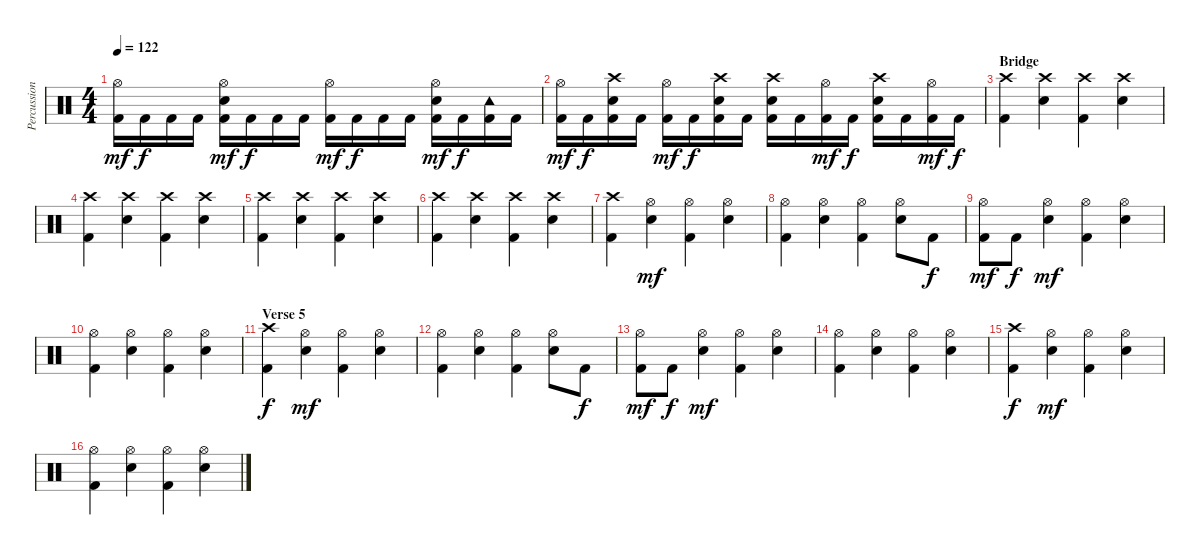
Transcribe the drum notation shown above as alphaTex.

\track ("Percussion" "Percussion") {instrument percussion}
\staff {score}
\articulation defaults
\ts (4 4)
\tempo 122
\clef neutral
\ks c
("Hi-Hat (open)" "Kick (hit) 2").16{dy mf} "Kick (hit) 2".16{dy f} "Kick (hit) 2".16 "Kick (hit) 2".16 ("Hi-Hat (open)" "Electric Snare (hit)" "Kick (hit) 2").16{dy mf} "Kick (hit) 2".16{dy f} "Kick (hit) 2".16 "Kick (hit) 2".16 ("Hi-Hat (open)" "Kick (hit) 2").16{dy mf} "Kick (hit) 2".16{dy f} "Kick (hit) 2".16 "Kick (hit) 2".16 ("Hi-Hat (open)" "Electric Snare (hit)" "Kick (hit) 2").16{dy mf} "Kick (hit) 2".16{dy f} ("Tambourine (hit)" "Kick (hit) 2").16 "Kick (hit) 2".16 |
("Hi-Hat (open)" "Kick (hit) 2").16{dy mf} "Kick (hit) 2".16{dy f} ("Crash high (hit)" "Electric Snare (hit)" "Kick (hit) 2").16 "Kick (hit) 2".16 ("Hi-Hat (open)" "Kick (hit) 2").16{dy mf} "Kick (hit) 2".16{dy f} ("Crash high (hit)" "Electric Snare (hit)" "Kick (hit) 2").16 "Kick (hit) 2".16 ("Crash high (hit)" "Electric Snare (hit)" "Kick (hit) 2").16 "Kick (hit) 2".16 ("Hi-Hat (open)" "Kick (hit) 2").16{dy mf} "Kick (hit) 2".16{dy f} ("Crash high (hit)" "Electric Snare (hit)" "Kick (hit) 2").16 "Kick (hit) 2".16 ("Hi-Hat (open)" "Kick (hit) 2").16{dy mf} "Kick (hit) 2".16{dy f} |
\section ("" "Bridge")
("Crash high (hit)" "Kick (hit) 2").4 ("Crash high (hit)" "Electric Snare (hit)").4 ("Crash high (hit)" "Kick (hit) 2").4 ("Crash high (hit)" "Electric Snare (hit)").4 |
("Crash high (hit)" "Kick (hit) 2").4 ("Crash high (hit)" "Electric Snare (hit)").4 ("Crash high (hit)" "Kick (hit) 2").4 ("Crash high (hit)" "Electric Snare (hit)").4 |
("Crash high (hit)" "Kick (hit) 2").4 ("Crash high (hit)" "Electric Snare (hit)").4 ("Crash high (hit)" "Kick (hit) 2").4 ("Crash high (hit)" "Electric Snare (hit)").4 |
("Crash high (hit)" "Kick (hit) 2").4 ("Crash high (hit)" "Electric Snare (hit)").4 ("Crash high (hit)" "Kick (hit) 2").4 ("Crash high (hit)" "Electric Snare (hit)").4 |
("Crash high (hit)" "Kick (hit) 2").4 ("Hi-Hat (open)" "Electric Snare (hit)").4{dy mf} ("Hi-Hat (open)" "Kick (hit) 2").4 ("Hi-Hat (open)" "Electric Snare (hit)").4 |
("Hi-Hat (open)" "Kick (hit) 2").4 ("Hi-Hat (open)" "Electric Snare (hit)").4 ("Hi-Hat (open)" "Kick (hit) 2").4 ("Hi-Hat (open)" "Electric Snare (hit)").8 "Kick (hit) 2".8{dy f} |
("Hi-Hat (open)" "Kick (hit) 2").8{dy mf} "Kick (hit) 2".8{dy f} ("Hi-Hat (open)" "Electric Snare (hit)").4{dy mf} ("Hi-Hat (open)" "Kick (hit) 2").4 ("Hi-Hat (open)" "Electric Snare (hit)").4 |
("Hi-Hat (open)" "Kick (hit) 2").4 ("Hi-Hat (open)" "Electric Snare (hit)").4 ("Hi-Hat (open)" "Kick (hit) 2").4 ("Hi-Hat (open)" "Electric Snare (hit)").4 |
\section ("" "Verse 5")
("Crash high (hit)" "Kick (hit) 2").4{dy f} ("Hi-Hat (open)" "Electric Snare (hit)").4{dy mf} ("Hi-Hat (open)" "Kick (hit) 2").4 ("Hi-Hat (open)" "Electric Snare (hit)").4 |
("Hi-Hat (open)" "Kick (hit) 2").4 ("Hi-Hat (open)" "Electric Snare (hit)").4 ("Hi-Hat (open)" "Kick (hit) 2").4 ("Hi-Hat (open)" "Electric Snare (hit)").8 "Kick (hit) 2".8{dy f} |
("Hi-Hat (open)" "Kick (hit) 2").8{dy mf} "Kick (hit) 2".8{dy f} ("Hi-Hat (open)" "Electric Snare (hit)").4{dy mf} ("Hi-Hat (open)" "Kick (hit) 2").4 ("Hi-Hat (open)" "Electric Snare (hit)").4 |
("Hi-Hat (open)" "Kick (hit) 2").4 ("Hi-Hat (open)" "Electric Snare (hit)").4 ("Hi-Hat (open)" "Kick (hit) 2").4 ("Hi-Hat (open)" "Electric Snare (hit)").4 |
("Crash high (hit)" "Kick (hit) 2").4{dy f} ("Hi-Hat (open)" "Electric Snare (hit)").4{dy mf} ("Hi-Hat (open)" "Kick (hit) 2").4 ("Hi-Hat (open)" "Electric Snare (hit)").4 |
("Hi-Hat (open)" "Kick (hit) 2").4 ("Hi-Hat (open)" "Electric Snare (hit)").4 ("Hi-Hat (open)" "Kick (hit) 2").4 ("Hi-Hat (open)" "Electric Snare (hit)").4
